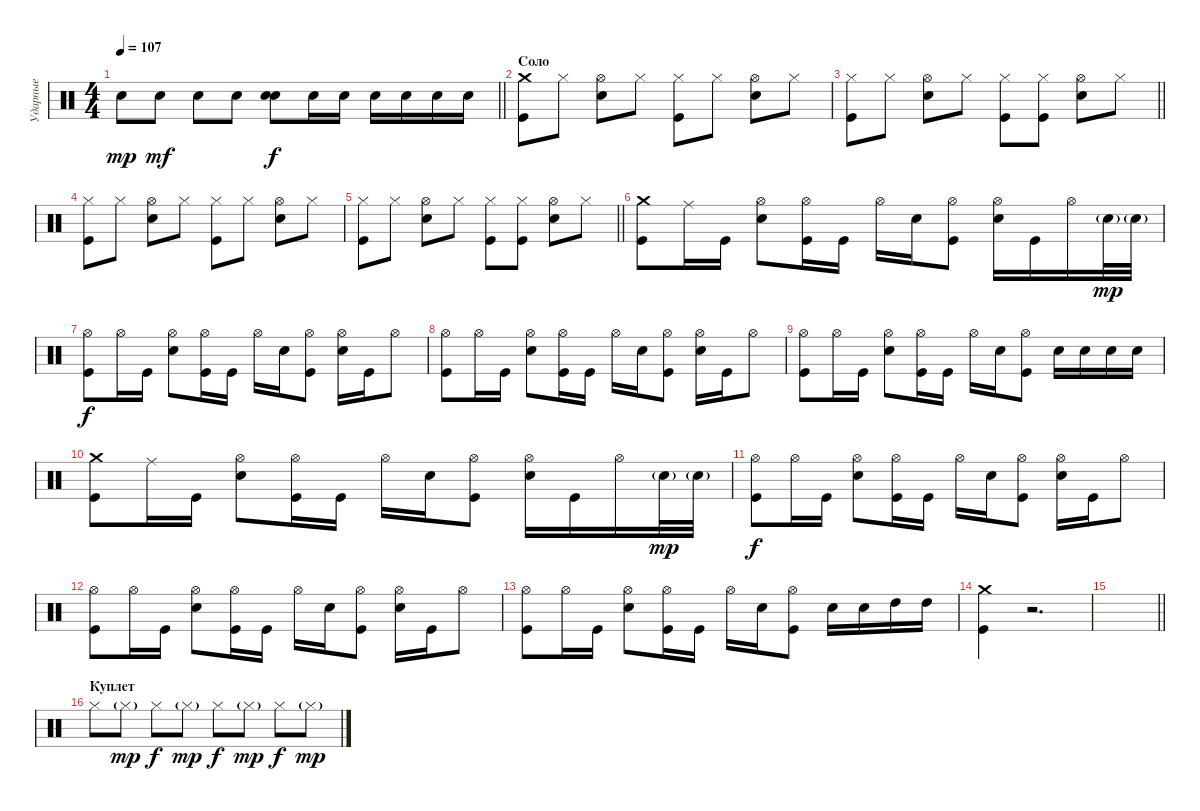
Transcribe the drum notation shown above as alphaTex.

\track ("Ударные" "Ударные") {instrument percussion}
\staff {score}
\articulation defaults
\ts (4 4)
\tempo 107
\clef neutral
\barLineRight lightlight
\ks c "Snare (hit) 2".8{dy mp} "Snare (hit) 2".8{dy mf} "Snare (hit) 2".8 "Snare (hit) 2".8
("Snare (hit) 2" "Snare (hit) 2").8{bd 60 dy f} "Snare (hit) 2".16 "Snare (hit) 2".16 "Snare (hit) 2".16 "Snare (hit) 2".16 "Snare (hit) 2".16 "Snare (hit) 2".16 |
\section ("" "Соло")
("Kick (hit)" "Crash medium (hit)").8 "Hi-Hat (closed)".8 ("Snare (hit) 2" "Hi-Hat (open)").8 "Hi-Hat (closed)".8 ("Kick (hit)" "Hi-Hat (closed)").8 "Hi-Hat (closed)".8 ("Snare (hit) 2" "Hi-Hat (open)").8 "Hi-Hat (closed)".8 |
\barLineRight lightlight
("Kick (hit)" "Hi-Hat (closed)").8 "Hi-Hat (closed)".8 ("Snare (hit) 2" "Hi-Hat (open)").8 "Hi-Hat (closed)".8 ("Kick (hit)" "Hi-Hat (closed)").8 ("Kick (hit)" "Hi-Hat (closed)").8 ("Snare (hit) 2" "Hi-Hat (open)").8 "Hi-Hat (closed)".8 |
\section ("" "")
("Kick (hit)" "Hi-Hat (closed)").8 "Hi-Hat (closed)".8 ("Snare (hit) 2" "Hi-Hat (open)").8 "Hi-Hat (closed)".8 ("Kick (hit)" "Hi-Hat (closed)").8 "Hi-Hat (closed)".8 ("Snare (hit) 2" "Hi-Hat (open)").8 "Hi-Hat (closed)".8 |
\barLineRight lightlight
("Kick (hit)" "Hi-Hat (closed)").8 "Hi-Hat (closed)".8 ("Snare (hit) 2" "Hi-Hat (open)").8 "Hi-Hat (closed)".8 ("Kick (hit)" "Hi-Hat (closed)").8 ("Kick (hit)" "Hi-Hat (closed)").8 ("Snare (hit) 2" "Hi-Hat (open)").8 "Hi-Hat (closed)".8 |
("Kick (hit)" "Crash medium (hit)").8 "Ride (middle)".16 "Kick (hit)".16 ("Snare (hit) 2" "Hi-Hat (open)").8 ("Kick (hit)" "Hi-Hat (open)").16 "Kick (hit)".16 "Hi-Hat (open)".16 "Snare (hit) 2".16 ("Kick (hit)" "Hi-Hat (open)").8 ("Snare (hit) 2" "Hi-Hat (open)").16 "Kick (hit)".16 "Hi-Hat (open)".16 "Snare (hit) 2"{g}.32{dy mp} "Snare (hit) 2"{g}.32 |
("Kick (hit)" "Hi-Hat (open)").8{dy f} "Hi-Hat (open)".16 "Kick (hit)".16 ("Snare (hit) 2" "Hi-Hat (open)").8 ("Kick (hit)" "Hi-Hat (open)").16 "Kick (hit)".16 "Hi-Hat (open)".16 "Snare (hit) 2".16 ("Kick (hit)" "Hi-Hat (open)").8 ("Snare (hit) 2" "Hi-Hat (open)").16 "Kick (hit)".16 "Hi-Hat (open)".8 |
("Kick (hit)" "Hi-Hat (open)").8 "Hi-Hat (open)".16 "Kick (hit)".16 ("Snare (hit) 2" "Hi-Hat (open)").8 ("Kick (hit)" "Hi-Hat (open)").16 "Kick (hit)".16 "Hi-Hat (open)".16 "Snare (hit) 2".16 ("Kick (hit)" "Hi-Hat (open)").8 ("Snare (hit) 2" "Hi-Hat (open)").16 "Kick (hit)".16 "Hi-Hat (open)".8 |
("Kick (hit)" "Hi-Hat (open)").8 "Hi-Hat (open)".16 "Kick (hit)".16 ("Snare (hit) 2" "Hi-Hat (open)").8 ("Kick (hit)" "Hi-Hat (open)").16 "Kick (hit)".16 "Hi-Hat (open)".16 "Snare (hit) 2".16 ("Kick (hit)" "Hi-Hat (open)").8 "Snare (hit) 2".16 "Snare (hit) 2".16 "Snare (hit) 2".16 "Snare (hit) 2".16 |
("Kick (hit)" "Crash medium (hit)").8 "Ride (middle)".16 "Kick (hit)".16 ("Snare (hit) 2" "Hi-Hat (open)").8 ("Kick (hit)" "Hi-Hat (open)").16 "Kick (hit)".16 "Hi-Hat (open)".16 "Snare (hit) 2".16 ("Kick (hit)" "Hi-Hat (open)").8 ("Snare (hit) 2" "Hi-Hat (open)").16 "Kick (hit)".16 "Hi-Hat (open)".16 "Snare (hit) 2"{g}.32{dy mp} "Snare (hit) 2"{g}.32 |
("Kick (hit)" "Hi-Hat (open)").8{dy f} "Hi-Hat (open)".16 "Kick (hit)".16 ("Snare (hit) 2" "Hi-Hat (open)").8 ("Kick (hit)" "Hi-Hat (open)").16 "Kick (hit)".16 "Hi-Hat (open)".16 "Snare (hit) 2".16 ("Kick (hit)" "Hi-Hat (open)").8 ("Snare (hit) 2" "Hi-Hat (open)").16 "Kick (hit)".16 "Hi-Hat (open)".8 |
("Kick (hit)" "Hi-Hat (open)").8 "Hi-Hat (open)".16 "Kick (hit)".16 ("Snare (hit) 2" "Hi-Hat (open)").8 ("Kick (hit)" "Hi-Hat (open)").16 "Kick (hit)".16 "Hi-Hat (open)".16 "Snare (hit) 2".16 ("Kick (hit)" "Hi-Hat (open)").8 ("Snare (hit) 2" "Hi-Hat (open)").16 "Kick (hit)".16 "Hi-Hat (open)".8 |
("Kick (hit)" "Hi-Hat (open)").8 "Hi-Hat (open)".16 "Kick (hit)".16 ("Snare (hit) 2" "Hi-Hat (open)").8 ("Kick (hit)" "Hi-Hat (open)").16 "Kick (hit)".16 "Hi-Hat (open)".16 "Snare (hit) 2".16 ("Kick (hit)" "Hi-Hat (open)").8 "Snare (hit) 2".16 "Snare (hit) 2".16 "High Tom (hit)".16 "High Tom (hit)".16 |
("Kick (hit)" "Crash medium (hit)").4 r.2{d} |
\barLineRight lightlight
|
\section ("" "Куплет")
"Hi-Hat (closed)".8 "Hi-Hat (closed)"{g}.8{dy mp} "Hi-Hat (closed)".8{dy f} "Hi-Hat (closed)"{g}.8{dy mp} "Hi-Hat (closed)".8{dy f} "Hi-Hat (closed)"{g}.8{dy mp} "Hi-Hat (closed)".8{dy f} "Hi-Hat (closed)"{g}.8{dy mp}
